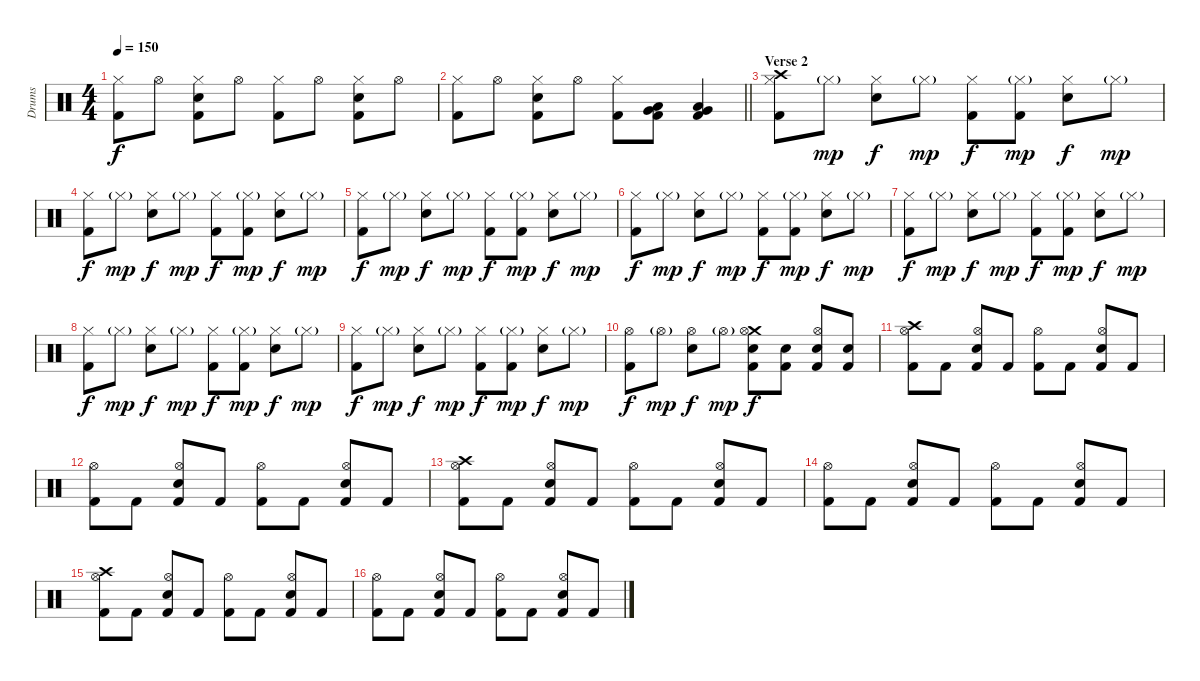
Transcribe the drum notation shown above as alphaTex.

\track ("Drums" "Drums") {instrument percussion}
\staff {score}
\articulation defaults
\ts (4 4)
\tempo 150
\clef neutral
\ks c
("Hi-Hat (closed)" "Kick (hit) 2").8{dy f} "Hi-Hat (open)".8 ("Hi-Hat (closed)" "Snare (hit) 2" "Kick (hit) 2").8 "Hi-Hat (open)".8 ("Hi-Hat (closed)" "Kick (hit) 2").8 "Hi-Hat (open)".8 ("Hi-Hat (closed)" "Snare (hit) 2" "Kick (hit) 2").8 "Hi-Hat (open)".8 |
\barLineRight lightlight
("Hi-Hat (closed)" "Kick (hit) 2").8 "Hi-Hat (open)".8 ("Hi-Hat (closed)" "Snare (hit) 2" "Kick (hit) 2").8 "Hi-Hat (open)".8 ("Hi-Hat (closed)" "Kick (hit) 2").8 ("Very Low Tom (hit)" "Low Floor Tom (hit)" "Kick (hit) 2").8 ("Very Low Tom (hit)" "Low Floor Tom (hit)" "Kick (hit) 2").4 |
\section ("" "Verse 2")
("Crash high (hit)" "Hi-Hat (closed)" "Kick (hit) 2").8 "Hi-Hat (closed)"{g}.8{dy mp} ("Hi-Hat (closed)" "Snare (hit) 2").8{dy f} "Hi-Hat (closed)"{g}.8{dy mp} ("Hi-Hat (closed)" "Kick (hit) 2").8{dy f} ("Hi-Hat (closed)"{g} "Kick (hit) 2").8{dy mp} ("Hi-Hat (closed)" "Snare (hit) 2").8{dy f} "Hi-Hat (closed)"{g}.8{dy mp} |
("Hi-Hat (closed)" "Kick (hit) 2").8{dy f} "Hi-Hat (closed)"{g}.8{dy mp} ("Hi-Hat (closed)" "Snare (hit) 2").8{dy f} "Hi-Hat (closed)"{g}.8{dy mp} ("Hi-Hat (closed)" "Kick (hit) 2").8{dy f} ("Hi-Hat (closed)"{g} "Kick (hit) 2").8{dy mp} ("Hi-Hat (closed)" "Snare (hit) 2").8{dy f} "Hi-Hat (closed)"{g}.8{dy mp} |
("Hi-Hat (closed)" "Kick (hit) 2").8{dy f} "Hi-Hat (closed)"{g}.8{dy mp} ("Hi-Hat (closed)" "Snare (hit) 2").8{dy f} "Hi-Hat (closed)"{g}.8{dy mp} ("Hi-Hat (closed)" "Kick (hit) 2").8{dy f} ("Hi-Hat (closed)"{g} "Kick (hit) 2").8{dy mp} ("Hi-Hat (closed)" "Snare (hit) 2").8{dy f} "Hi-Hat (closed)"{g}.8{dy mp} |
("Hi-Hat (closed)" "Kick (hit) 2").8{dy f} "Hi-Hat (closed)"{g}.8{dy mp} ("Hi-Hat (closed)" "Snare (hit) 2").8{dy f} "Hi-Hat (closed)"{g}.8{dy mp} ("Hi-Hat (closed)" "Kick (hit) 2").8{dy f} ("Hi-Hat (closed)"{g} "Kick (hit) 2").8{dy mp} ("Hi-Hat (closed)" "Snare (hit) 2").8{dy f} "Hi-Hat (closed)"{g}.8{dy mp} |
("Hi-Hat (closed)" "Kick (hit) 2").8{dy f} "Hi-Hat (closed)"{g}.8{dy mp} ("Hi-Hat (closed)" "Snare (hit) 2").8{dy f} "Hi-Hat (closed)"{g}.8{dy mp} ("Hi-Hat (closed)" "Kick (hit) 2").8{dy f} ("Hi-Hat (closed)"{g} "Kick (hit) 2").8{dy mp} ("Hi-Hat (closed)" "Snare (hit) 2").8{dy f} "Hi-Hat (closed)"{g}.8{dy mp} |
("Hi-Hat (closed)" "Kick (hit) 2").8{dy f} "Hi-Hat (closed)"{g}.8{dy mp} ("Hi-Hat (closed)" "Snare (hit) 2").8{dy f} "Hi-Hat (closed)"{g}.8{dy mp} ("Hi-Hat (closed)" "Kick (hit) 2").8{dy f} ("Hi-Hat (closed)"{g} "Kick (hit) 2").8{dy mp} ("Hi-Hat (closed)" "Snare (hit) 2").8{dy f} "Hi-Hat (closed)"{g}.8{dy mp} |
("Hi-Hat (closed)" "Kick (hit) 2").8{dy f} "Hi-Hat (closed)"{g}.8{dy mp} ("Hi-Hat (closed)" "Snare (hit) 2").8{dy f} "Hi-Hat (closed)"{g}.8{dy mp} ("Hi-Hat (closed)" "Kick (hit) 2").8{dy f} ("Hi-Hat (closed)"{g} "Kick (hit) 2").8{dy mp} ("Hi-Hat (closed)" "Snare (hit) 2").8{dy f} "Hi-Hat (closed)"{g}.8{dy mp} |
("Hi-Hat (open)" "Kick (hit) 2").8{dy f} "Hi-Hat (open)"{g}.8{dy mp} ("Hi-Hat (open)" "Snare (hit) 2").8{dy f} "Hi-Hat (open)"{g}.8{dy mp} ("Crash medium (hit)" "Hi-Hat (open)" "Snare (hit) 2" "Kick (hit) 2").8{dy f} ("Snare (hit) 2" "Kick (hit) 2").8 ("Hi-Hat (open)" "Snare (hit) 2" "Kick (hit) 2").8 ("Snare (hit) 2" "Kick (hit) 2").8 |
("Crash high (hit)" "Hi-Hat (open)" "Kick (hit) 2").8 "Kick (hit) 2".8 ("Hi-Hat (open)" "Snare (hit) 2" "Kick (hit) 2").8 "Kick (hit) 2".8 ("Hi-Hat (open)" "Kick (hit) 2").8 "Kick (hit) 2".8 ("Hi-Hat (open)" "Snare (hit) 2" "Kick (hit) 2").8 "Kick (hit) 2".8 |
("Hi-Hat (open)" "Kick (hit) 2").8 "Kick (hit) 2".8 ("Hi-Hat (open)" "Snare (hit) 2" "Kick (hit) 2").8 "Kick (hit) 2".8 ("Hi-Hat (open)" "Kick (hit) 2").8 "Kick (hit) 2".8 ("Hi-Hat (open)" "Snare (hit) 2" "Kick (hit) 2").8 "Kick (hit) 2".8 |
("Crash high (hit)" "Hi-Hat (open)" "Kick (hit) 2").8 "Kick (hit) 2".8 ("Hi-Hat (open)" "Snare (hit) 2" "Kick (hit) 2").8 "Kick (hit) 2".8 ("Hi-Hat (open)" "Kick (hit) 2").8 "Kick (hit) 2".8 ("Hi-Hat (open)" "Snare (hit) 2" "Kick (hit) 2").8 "Kick (hit) 2".8 |
("Hi-Hat (open)" "Kick (hit) 2").8 "Kick (hit) 2".8 ("Hi-Hat (open)" "Snare (hit) 2" "Kick (hit) 2").8 "Kick (hit) 2".8 ("Hi-Hat (open)" "Kick (hit) 2").8 "Kick (hit) 2".8 ("Hi-Hat (open)" "Snare (hit) 2" "Kick (hit) 2").8 "Kick (hit) 2".8 |
("Crash high (hit)" "Hi-Hat (open)" "Kick (hit) 2").8 "Kick (hit) 2".8 ("Hi-Hat (open)" "Snare (hit) 2" "Kick (hit) 2").8 "Kick (hit) 2".8 ("Hi-Hat (open)" "Kick (hit) 2").8 "Kick (hit) 2".8 ("Hi-Hat (open)" "Snare (hit) 2" "Kick (hit) 2").8 "Kick (hit) 2".8 |
("Hi-Hat (open)" "Kick (hit) 2").8 "Kick (hit) 2".8 ("Hi-Hat (open)" "Snare (hit) 2" "Kick (hit) 2").8 "Kick (hit) 2".8 ("Hi-Hat (open)" "Kick (hit) 2").8 "Kick (hit) 2".8 ("Hi-Hat (open)" "Snare (hit) 2" "Kick (hit) 2").8 "Kick (hit) 2".8
